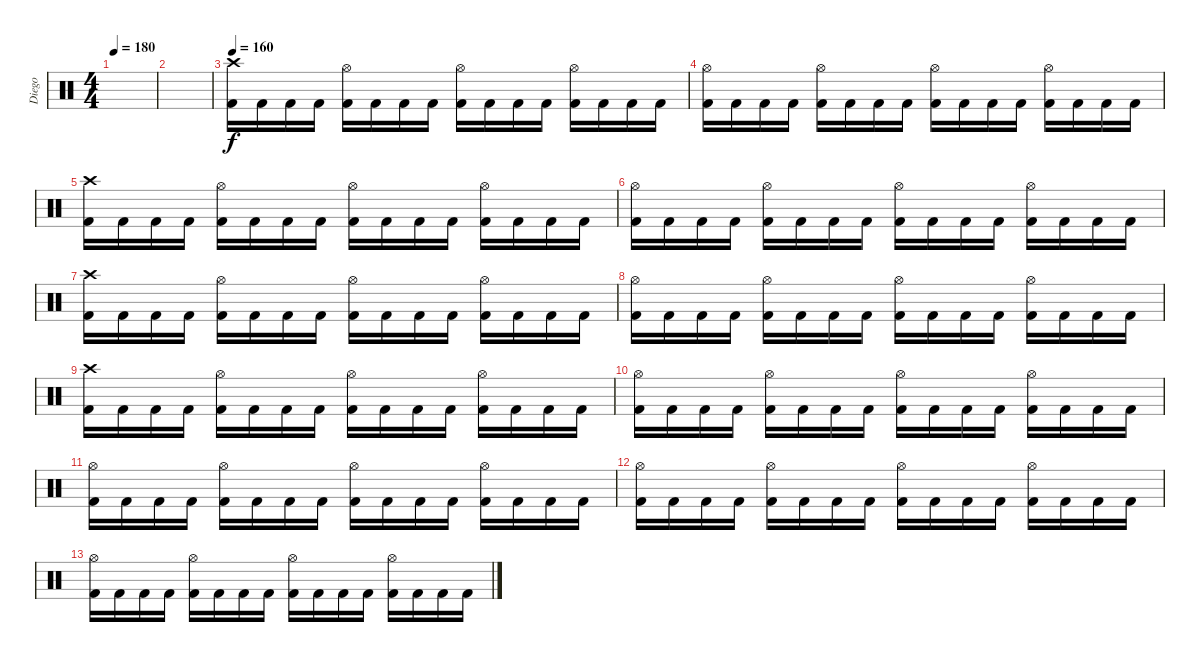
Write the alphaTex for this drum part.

\track ("Diego" "Diego") {instrument percussion}
\staff {score}
\articulation defaults
\ts (4 4)
\tempo 180
\clef neutral
\ks c
|
|
\tempo 160
("Crash high (hit)" "Kick (hit) 2").16 "Kick (hit) 2".16 "Kick (hit) 2".16 "Kick (hit) 2".16 ("Hi-Hat (open)" "Kick (hit) 2").16 "Kick (hit) 2".16 "Kick (hit) 2".16 "Kick (hit) 2".16 ("Hi-Hat (open)" "Kick (hit) 2").16 "Kick (hit) 2".16 "Kick (hit) 2".16 "Kick (hit) 2".16 ("Hi-Hat (open)" "Kick (hit) 2").16 "Kick (hit) 2".16 "Kick (hit) 2".16 "Kick (hit) 2".16 |
("Hi-Hat (open)" "Kick (hit) 2").16 "Kick (hit) 2".16 "Kick (hit) 2".16 "Kick (hit) 2".16 ("Hi-Hat (open)" "Kick (hit) 2").16 "Kick (hit) 2".16 "Kick (hit) 2".16 "Kick (hit) 2".16 ("Hi-Hat (open)" "Kick (hit) 2").16 "Kick (hit) 2".16 "Kick (hit) 2".16 "Kick (hit) 2".16 ("Hi-Hat (open)" "Kick (hit) 2").16 "Kick (hit) 2".16 "Kick (hit) 2".16 "Kick (hit) 2".16 |
("Crash high (hit)" "Kick (hit) 2").16 "Kick (hit) 2".16 "Kick (hit) 2".16 "Kick (hit) 2".16 ("Hi-Hat (open)" "Kick (hit) 2").16 "Kick (hit) 2".16 "Kick (hit) 2".16 "Kick (hit) 2".16 ("Hi-Hat (open)" "Kick (hit) 2").16 "Kick (hit) 2".16 "Kick (hit) 2".16 "Kick (hit) 2".16 ("Hi-Hat (open)" "Kick (hit) 2").16 "Kick (hit) 2".16 "Kick (hit) 2".16 "Kick (hit) 2".16 |
("Hi-Hat (open)" "Kick (hit) 2").16 "Kick (hit) 2".16 "Kick (hit) 2".16 "Kick (hit) 2".16 ("Hi-Hat (open)" "Kick (hit) 2").16 "Kick (hit) 2".16 "Kick (hit) 2".16 "Kick (hit) 2".16 ("Hi-Hat (open)" "Kick (hit) 2").16 "Kick (hit) 2".16 "Kick (hit) 2".16 "Kick (hit) 2".16 ("Hi-Hat (open)" "Kick (hit) 2").16 "Kick (hit) 2".16 "Kick (hit) 2".16 "Kick (hit) 2".16 |
("Crash high (hit)" "Kick (hit) 2").16 "Kick (hit) 2".16 "Kick (hit) 2".16 "Kick (hit) 2".16 ("Hi-Hat (open)" "Kick (hit) 2").16 "Kick (hit) 2".16 "Kick (hit) 2".16 "Kick (hit) 2".16 ("Hi-Hat (open)" "Kick (hit) 2").16 "Kick (hit) 2".16 "Kick (hit) 2".16 "Kick (hit) 2".16 ("Hi-Hat (open)" "Kick (hit) 2").16 "Kick (hit) 2".16 "Kick (hit) 2".16 "Kick (hit) 2".16 |
("Hi-Hat (open)" "Kick (hit) 2").16 "Kick (hit) 2".16 "Kick (hit) 2".16 "Kick (hit) 2".16 ("Hi-Hat (open)" "Kick (hit) 2").16 "Kick (hit) 2".16 "Kick (hit) 2".16 "Kick (hit) 2".16 ("Hi-Hat (open)" "Kick (hit) 2").16 "Kick (hit) 2".16 "Kick (hit) 2".16 "Kick (hit) 2".16 ("Hi-Hat (open)" "Kick (hit) 2").16 "Kick (hit) 2".16 "Kick (hit) 2".16 "Kick (hit) 2".16 |
("Crash high (hit)" "Kick (hit) 2").16 "Kick (hit) 2".16 "Kick (hit) 2".16 "Kick (hit) 2".16 ("Hi-Hat (open)" "Kick (hit) 2").16 "Kick (hit) 2".16 "Kick (hit) 2".16 "Kick (hit) 2".16 ("Hi-Hat (open)" "Kick (hit) 2").16 "Kick (hit) 2".16 "Kick (hit) 2".16 "Kick (hit) 2".16 ("Hi-Hat (open)" "Kick (hit) 2").16 "Kick (hit) 2".16 "Kick (hit) 2".16 "Kick (hit) 2".16 |
("Hi-Hat (open)" "Kick (hit) 2").16 "Kick (hit) 2".16 "Kick (hit) 2".16 "Kick (hit) 2".16 ("Hi-Hat (open)" "Kick (hit) 2").16 "Kick (hit) 2".16 "Kick (hit) 2".16 "Kick (hit) 2".16 ("Hi-Hat (open)" "Kick (hit) 2").16 "Kick (hit) 2".16 "Kick (hit) 2".16 "Kick (hit) 2".16 ("Hi-Hat (open)" "Kick (hit) 2").16 "Kick (hit) 2".16 "Kick (hit) 2".16 "Kick (hit) 2".16 |
("Hi-Hat (open)" "Kick (hit) 2").16 "Kick (hit) 2".16 "Kick (hit) 2".16 "Kick (hit) 2".16 ("Hi-Hat (open)" "Kick (hit) 2").16 "Kick (hit) 2".16 "Kick (hit) 2".16 "Kick (hit) 2".16 ("Hi-Hat (open)" "Kick (hit) 2").16 "Kick (hit) 2".16 "Kick (hit) 2".16 "Kick (hit) 2".16 ("Hi-Hat (open)" "Kick (hit) 2").16 "Kick (hit) 2".16 "Kick (hit) 2".16 "Kick (hit) 2".16 |
("Hi-Hat (open)" "Kick (hit) 2").16 "Kick (hit) 2".16 "Kick (hit) 2".16 "Kick (hit) 2".16 ("Hi-Hat (open)" "Kick (hit) 2").16 "Kick (hit) 2".16 "Kick (hit) 2".16 "Kick (hit) 2".16 ("Hi-Hat (open)" "Kick (hit) 2").16 "Kick (hit) 2".16 "Kick (hit) 2".16 "Kick (hit) 2".16 ("Hi-Hat (open)" "Kick (hit) 2").16 "Kick (hit) 2".16 "Kick (hit) 2".16 "Kick (hit) 2".16 |
("Hi-Hat (open)" "Kick (hit) 2").16 "Kick (hit) 2".16 "Kick (hit) 2".16 "Kick (hit) 2".16 ("Hi-Hat (open)" "Kick (hit) 2").16 "Kick (hit) 2".16 "Kick (hit) 2".16 "Kick (hit) 2".16 ("Hi-Hat (open)" "Kick (hit) 2").16 "Kick (hit) 2".16 "Kick (hit) 2".16 "Kick (hit) 2".16 ("Hi-Hat (open)" "Kick (hit) 2").16 "Kick (hit) 2".16 "Kick (hit) 2".16 "Kick (hit) 2".16
